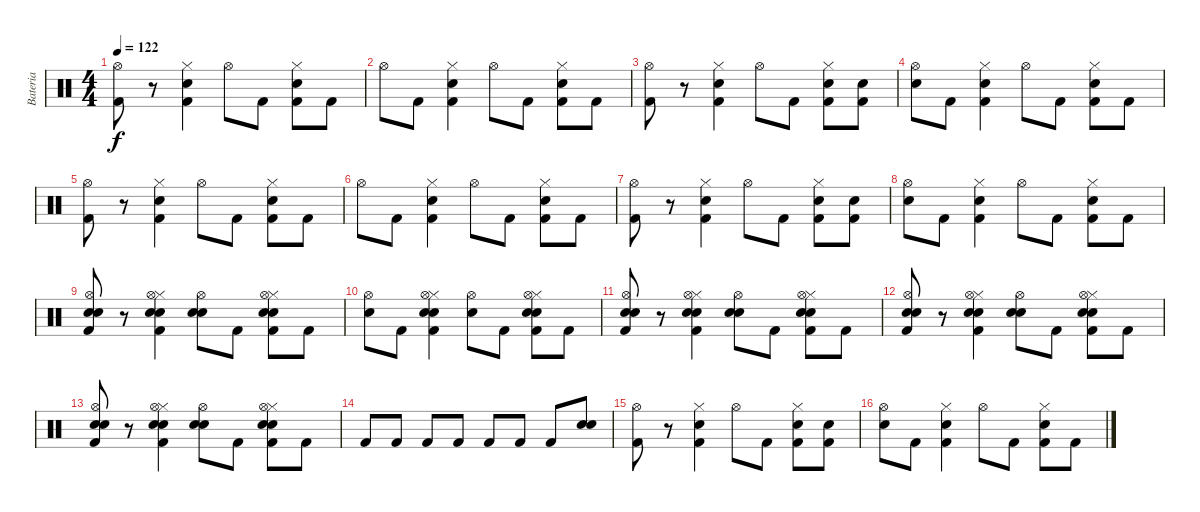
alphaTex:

\track ("Bateria" "Bateria") {instrument percussion}
\staff {score}
\articulation defaults
\ts (4 4)
\tempo 122
\clef neutral
\ks c
("Kick (hit) 2" "Hi-Hat (open)").8{dy f} r.8 ("Kick (hit) 2" "Snare (hit) 2" "Hi-Hat (closed)").4 "Hi-Hat (open)".8 "Kick (hit) 2".8 ("Kick (hit) 2" "Snare (hit) 2" "Hi-Hat (closed)").8 "Kick (hit) 2".8 |
"Hi-Hat (open)".8 "Kick (hit) 2".8 ("Kick (hit) 2" "Snare (hit) 2" "Hi-Hat (closed)").4 "Hi-Hat (open)".8 "Kick (hit) 2".8 ("Kick (hit) 2" "Snare (hit) 2" "Hi-Hat (closed)").8 "Kick (hit) 2".8 |
("Kick (hit) 2" "Hi-Hat (open)").8 r.8 ("Kick (hit) 2" "Snare (hit) 2" "Hi-Hat (closed)").4 "Hi-Hat (open)".8 "Kick (hit) 2".8 ("Kick (hit) 2" "Snare (hit) 2" "Hi-Hat (closed)").8 ("Kick (hit) 2" "Snare (hit)").8 |
("Hi-Hat (open)" "Snare (hit)").8 "Kick (hit) 2".8 ("Kick (hit) 2" "Snare (hit) 2" "Hi-Hat (closed)").4 "Hi-Hat (open)".8 "Kick (hit) 2".8 ("Kick (hit) 2" "Snare (hit) 2" "Hi-Hat (closed)").8 "Kick (hit) 2".8 |
("Kick (hit) 2" "Hi-Hat (open)").8 r.8 ("Kick (hit) 2" "Snare (hit) 2" "Hi-Hat (closed)").4 "Hi-Hat (open)".8 "Kick (hit) 2".8 ("Kick (hit) 2" "Snare (hit) 2" "Hi-Hat (closed)").8 "Kick (hit) 2".8 |
"Hi-Hat (open)".8 "Kick (hit) 2".8 ("Kick (hit) 2" "Snare (hit) 2" "Hi-Hat (closed)").4 "Hi-Hat (open)".8 "Kick (hit) 2".8 ("Kick (hit) 2" "Snare (hit) 2" "Hi-Hat (closed)").8 "Kick (hit) 2".8 |
("Kick (hit) 2" "Hi-Hat (open)").8 r.8 ("Kick (hit) 2" "Snare (hit) 2" "Hi-Hat (closed)").4 "Hi-Hat (open)".8 "Kick (hit) 2".8 ("Kick (hit) 2" "Snare (hit) 2" "Hi-Hat (closed)").8 ("Kick (hit) 2" "Snare (hit)").8 |
("Hi-Hat (open)" "Snare (hit)").8 "Kick (hit) 2".8 ("Kick (hit) 2" "Snare (hit) 2" "Hi-Hat (closed)").4 "Hi-Hat (open)".8 "Kick (hit) 2".8 ("Kick (hit) 2" "Snare (hit) 2" "Hi-Hat (closed)").8 "Kick (hit) 2".8 |
("Kick (hit) 2" "Hi-Hat (open)" "Snare (hit) 2" "Snare (hit) 2").8 r.8 ("Kick (hit) 2" "Snare (hit) 2" "Hi-Hat (closed)" "Hi-Hat (open)" "Snare (hit) 2").4 ("Hi-Hat (open)" "Snare (hit) 2" "Snare (hit) 2").8 "Kick (hit) 2".8 ("Kick (hit) 2" "Snare (hit) 2" "Hi-Hat (closed)" "Hi-Hat (open)" "Snare (hit) 2").8 "Kick (hit) 2".8 |
("Hi-Hat (open)" "Snare (hit) 2").8 "Kick (hit) 2".8 ("Kick (hit) 2" "Snare (hit) 2" "Hi-Hat (closed)" "Hi-Hat (open)" "Snare (hit) 2").4 ("Hi-Hat (open)" "Snare (hit) 2").8 "Kick (hit) 2".8 ("Kick (hit) 2" "Snare (hit) 2" "Hi-Hat (closed)" "Hi-Hat (open)" "Snare (hit) 2").8 "Kick (hit) 2".8 |
("Kick (hit) 2" "Hi-Hat (open)" "Snare (hit) 2" "Snare (hit) 2").8 r.8 ("Kick (hit) 2" "Snare (hit) 2" "Hi-Hat (closed)" "Hi-Hat (open)" "Snare (hit) 2").4 ("Hi-Hat (open)" "Snare (hit) 2" "Snare (hit) 2").8 "Kick (hit) 2".8 ("Kick (hit) 2" "Snare (hit) 2" "Hi-Hat (closed)" "Hi-Hat (open)" "Snare (hit) 2").8 "Kick (hit) 2".8 |
("Kick (hit) 2" "Hi-Hat (open)" "Snare (hit) 2" "Snare (hit) 2").8 r.8 ("Kick (hit) 2" "Snare (hit) 2" "Hi-Hat (closed)" "Hi-Hat (open)" "Snare (hit) 2").4 ("Hi-Hat (open)" "Snare (hit) 2" "Snare (hit) 2").8 "Kick (hit) 2".8 ("Kick (hit) 2" "Snare (hit) 2" "Hi-Hat (closed)" "Hi-Hat (open)" "Snare (hit) 2").8 "Kick (hit) 2".8 |
("Kick (hit) 2" "Hi-Hat (open)" "Snare (hit) 2" "Snare (hit) 2").8 r.8 ("Kick (hit) 2" "Snare (hit) 2" "Hi-Hat (closed)" "Hi-Hat (open)" "Snare (hit) 2").4 ("Hi-Hat (open)" "Snare (hit) 2" "Snare (hit) 2").8 "Kick (hit) 2".8 ("Kick (hit) 2" "Snare (hit) 2" "Hi-Hat (closed)" "Hi-Hat (open)" "Snare (hit) 2").8 "Kick (hit) 2".8 |
"Kick (hit) 2".8 "Kick (hit) 2".8 "Kick (hit) 2".8 "Kick (hit) 2".8 "Kick (hit) 2".8 "Kick (hit) 2".8 "Kick (hit) 2".8 ("Snare (hit) 2" "Snare (hit) 2").8 |
("Kick (hit) 2" "Hi-Hat (open)").8 r.8 ("Kick (hit) 2" "Snare (hit) 2" "Hi-Hat (closed)").4 "Hi-Hat (open)".8 "Kick (hit) 2".8 ("Kick (hit) 2" "Snare (hit) 2" "Hi-Hat (closed)").8 ("Kick (hit) 2" "Snare (hit)").8 |
("Hi-Hat (open)" "Snare (hit)").8 "Kick (hit) 2".8 ("Kick (hit) 2" "Snare (hit) 2" "Hi-Hat (closed)").4 "Hi-Hat (open)".8 "Kick (hit) 2".8 ("Kick (hit) 2" "Snare (hit) 2" "Hi-Hat (closed)").8 "Kick (hit) 2".8
